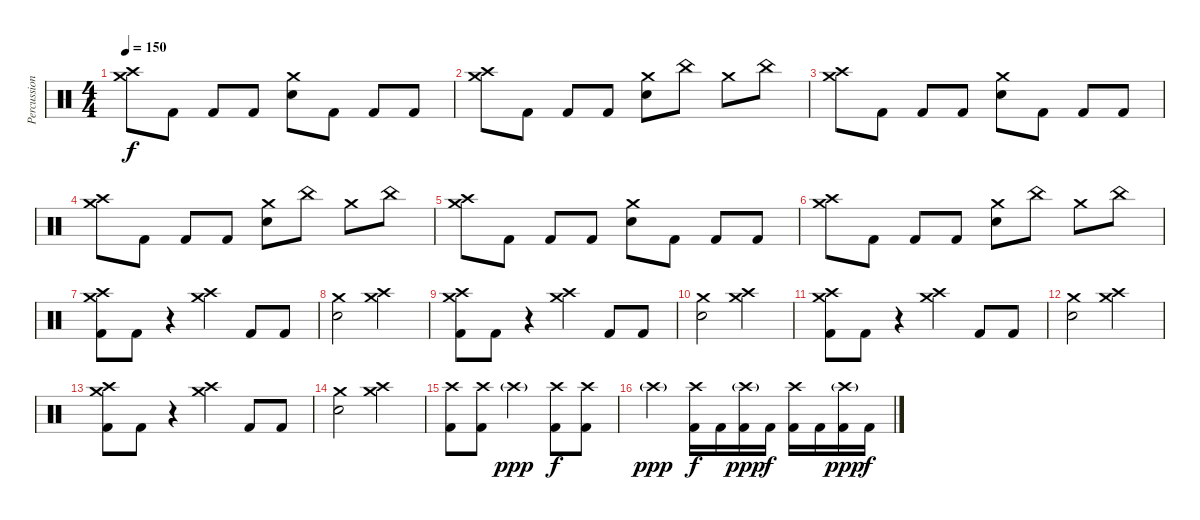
\track ("Percussion" "Percussion") {instrument percussion}
\staff {score}
\articulation defaults
\ts (4 4)
\tempo 150
\clef neutral
\ks c
("Crash medium (hit)" "Crash high (hit)").8{dy f} "Kick (hit) 2".8 "Kick (hit) 2".8 "Kick (hit) 2".8 ("Electric Snare (hit)" "Crash medium (hit)").8 "Kick (hit) 2".8 "Kick (hit) 2".8 "Kick (hit) 2".8 |
("Crash medium (hit)" "Crash high (hit)").8 "Kick (hit) 2".8 "Kick (hit) 2".8 "Kick (hit) 2".8 ("Electric Snare (hit)" "Crash medium (hit)").8 "China (hit)".8 "Crash medium (hit)".8 "China (hit)".8 |
("Crash medium (hit)" "Crash high (hit)").8 "Kick (hit) 2".8 "Kick (hit) 2".8 "Kick (hit) 2".8 ("Electric Snare (hit)" "Crash medium (hit)").8 "Kick (hit) 2".8 "Kick (hit) 2".8 "Kick (hit) 2".8 |
("Crash medium (hit)" "Crash high (hit)").8 "Kick (hit) 2".8 "Kick (hit) 2".8 "Kick (hit) 2".8 ("Electric Snare (hit)" "Crash medium (hit)").8 "China (hit)".8 "Crash medium (hit)".8 "China (hit)".8 |
("Crash medium (hit)" "Crash high (hit)").8 "Kick (hit) 2".8 "Kick (hit) 2".8 "Kick (hit) 2".8 ("Electric Snare (hit)" "Crash medium (hit)").8 "Kick (hit) 2".8 "Kick (hit) 2".8 "Kick (hit) 2".8 |
("Crash medium (hit)" "Crash high (hit)").8 "Kick (hit) 2".8 "Kick (hit) 2".8 "Kick (hit) 2".8 ("Electric Snare (hit)" "Crash medium (hit)").8 "China (hit)".8 "Crash medium (hit)".8 "China (hit)".8 |
("Kick (hit) 2" "Crash medium (hit)" "Crash high (hit)").8 "Kick (hit) 2".8 r.4 ("Crash medium (hit)" "Crash high (hit)").4 "Kick (hit) 2".8 "Kick (hit) 2".8 |
("Electric Snare (hit)" "Crash medium (hit)").2 ("Crash medium (hit)" "Crash high (hit)").2 |
("Kick (hit) 2" "Crash medium (hit)" "Crash high (hit)").8 "Kick (hit) 2".8 r.4 ("Crash medium (hit)" "Crash high (hit)").4 "Kick (hit) 2".8 "Kick (hit) 2".8 |
("Electric Snare (hit)" "Crash medium (hit)").2 ("Crash medium (hit)" "Crash high (hit)").2 |
("Kick (hit) 2" "Crash medium (hit)" "Crash high (hit)").8 "Kick (hit) 2".8 r.4 ("Crash medium (hit)" "Crash high (hit)").4 "Kick (hit) 2".8 "Kick (hit) 2".8 |
("Electric Snare (hit)" "Crash medium (hit)").2 ("Crash medium (hit)" "Crash high (hit)").2 |
("Kick (hit) 2" "Crash medium (hit)" "Crash high (hit)").8 "Kick (hit) 2".8 r.4 ("Crash medium (hit)" "Crash high (hit)").4 "Kick (hit) 2".8 "Kick (hit) 2".8 |
("Electric Snare (hit)" "Crash medium (hit)").2 ("Crash medium (hit)" "Crash high (hit)").2 |
("Kick (hit) 2" "Crash high (hit)").8 ("Kick (hit) 2" "Crash high (hit)").8 "Crash high (hit)"{g}.2{dy ppp} ("Kick (hit) 2" "Crash high (hit)").8{dy f} ("Kick (hit) 2" "Crash high (hit)").8 |
"Crash high (hit)"{g}.2{dy ppp} ("Kick (hit) 2" "Crash high (hit)").16{dy f} "Kick (hit) 2".16 ("Kick (hit) 2" "Crash high (hit)"{g}).16{dy ppp} "Kick (hit) 2".16{dy f} ("Kick (hit) 2" "Crash high (hit)").16 "Kick (hit) 2".16 ("Kick (hit) 2" "Crash high (hit)"{g}).16{dy ppp} "Kick (hit) 2".16{dy f}
